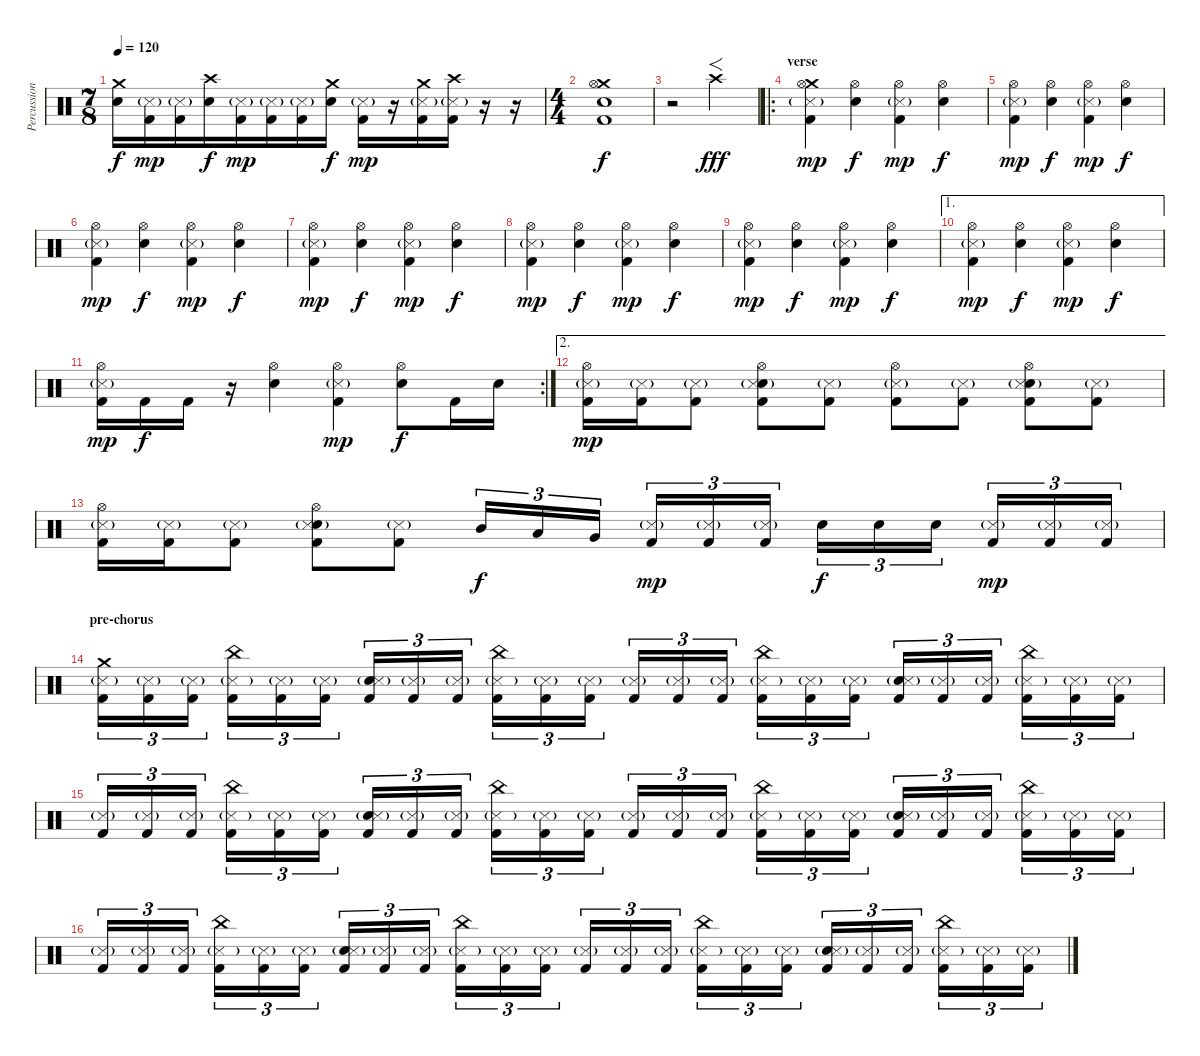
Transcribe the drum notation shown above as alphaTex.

\track ("Percussion" "Percussion") {instrument percussion}
\staff {score}
\articulation defaults
\ts (7 8)
\tempo 120
\clef neutral
\ks c
("Crash medium (hit)" "Electric Snare (hit)").16{dy f} ("Snare (side stick) 3"{g} "Kick (hit) 2").16{dy mp} ("Snare (side stick) 3"{g} "Kick (hit) 2").16 ("Crash high (hit)" "Electric Snare (hit)").16{dy f} ("Snare (side stick) 3"{g} "Kick (hit) 2").16{dy mp} ("Snare (side stick) 3"{g} "Kick (hit) 2").16 ("Snare (side stick) 3"{g} "Kick (hit) 2").16 ("Crash medium (hit)" "Electric Snare (hit)").16{dy f} ("Snare (side stick) 3"{g} "Kick (hit) 2").16{dy mp} r.16 ("Crash medium (hit)" "Snare (side stick) 3"{g} "Kick (hit) 2").16 ("Crash high (hit)" "Snare (side stick) 3"{g} "Kick (hit) 2").16 r.16 r.16 |
\ts (4 4)
("Crash medium (hit)" "Hi-Hat (open)" "Electric Snare (hit)" "Kick (hit) 2").1{dy f} |
r.2 "Crash high (hit)".2{f dy fff} |
\ro
\section ("" "verse")
("Crash medium (hit)" "Hi-Hat (open)" "Snare (side stick) 3"{g} "Kick (hit) 2").4{dy mp} ("Hi-Hat (open)" "Electric Snare (hit)").4{dy f} ("Hi-Hat (open)" "Snare (side stick) 3"{g} "Kick (hit) 2").4{dy mp} ("Hi-Hat (open)" "Electric Snare (hit)").4{dy f} |
("Hi-Hat (open)" "Snare (side stick) 3"{g} "Kick (hit) 2").4{dy mp} ("Hi-Hat (open)" "Electric Snare (hit)").4{dy f} ("Hi-Hat (open)" "Snare (side stick) 3"{g} "Kick (hit) 2").4{dy mp} ("Hi-Hat (open)" "Electric Snare (hit)").4{dy f} |
("Hi-Hat (open)" "Snare (side stick) 3"{g} "Kick (hit) 2").4{dy mp} ("Hi-Hat (open)" "Electric Snare (hit)").4{dy f} ("Hi-Hat (open)" "Snare (side stick) 3"{g} "Kick (hit) 2").4{dy mp} ("Hi-Hat (open)" "Electric Snare (hit)").4{dy f} |
("Hi-Hat (open)" "Snare (side stick) 3"{g} "Kick (hit) 2").4{dy mp} ("Hi-Hat (open)" "Electric Snare (hit)").4{dy f} ("Hi-Hat (open)" "Snare (side stick) 3"{g} "Kick (hit) 2").4{dy mp} ("Hi-Hat (open)" "Electric Snare (hit)").4{dy f} |
("Hi-Hat (open)" "Snare (side stick) 3"{g} "Kick (hit) 2").4{dy mp} ("Hi-Hat (open)" "Electric Snare (hit)").4{dy f} ("Hi-Hat (open)" "Snare (side stick) 3"{g} "Kick (hit) 2").4{dy mp} ("Hi-Hat (open)" "Electric Snare (hit)").4{dy f} |
("Hi-Hat (open)" "Snare (side stick) 3"{g} "Kick (hit) 2").4{dy mp} ("Hi-Hat (open)" "Electric Snare (hit)").4{dy f} ("Hi-Hat (open)" "Snare (side stick) 3"{g} "Kick (hit) 2").4{dy mp} ("Hi-Hat (open)" "Electric Snare (hit)").4{dy f} |
\ae 1
("Hi-Hat (open)" "Snare (side stick) 3"{g} "Kick (hit) 2").4{dy mp} ("Hi-Hat (open)" "Electric Snare (hit)").4{dy f} ("Hi-Hat (open)" "Snare (side stick) 3"{g} "Kick (hit) 2").4{dy mp} ("Hi-Hat (open)" "Electric Snare (hit)").4{dy f} |
\rc 2
("Hi-Hat (open)" "Snare (side stick) 3"{g} "Kick (hit) 2").16{dy mp} "Kick (hit) 2".16{dy f} "Kick (hit) 2".16 r.16 ("Hi-Hat (open)" "Electric Snare (hit)").4 ("Hi-Hat (open)" "Snare (side stick) 3"{g} "Kick (hit) 2").4{dy mp} ("Hi-Hat (open)" "Electric Snare (hit)").8{dy f} "Kick (hit) 2".16 "Electric Snare (hit)".16 |
\ae 2
("Hi-Hat (open)" "Snare (side stick) 3"{g} "Kick (hit) 2").16{dy mp} ("Snare (side stick) 3"{g} "Kick (hit) 2").16 ("Snare (side stick) 3"{g} "Kick (hit) 2").8 ("Hi-Hat (open)" "Electric Snare (hit)" "Snare (side stick) 3"{g} "Kick (hit) 2").8 ("Snare (side stick) 3"{g} "Kick (hit) 2").8 ("Hi-Hat (open)" "Snare (side stick) 3"{g} "Kick (hit) 2").8 ("Snare (side stick) 3"{g} "Kick (hit) 2").8 ("Hi-Hat (open)" "Electric Snare (hit)" "Snare (side stick) 3"{g} "Kick (hit) 2").8 ("Snare (side stick) 3"{g} "Kick (hit) 2").8 |
("Hi-Hat (open)" "Snare (side stick) 3"{g} "Kick (hit) 2").16 ("Snare (side stick) 3"{g} "Kick (hit) 2").16 ("Snare (side stick) 3"{g} "Kick (hit) 2").8 ("Hi-Hat (open)" "Electric Snare (hit)" "Snare (side stick) 3"{g} "Kick (hit) 2").8 ("Snare (side stick) 3"{g} "Kick (hit) 2").8 "Mid Tom (hit)".16{tu (3 2) dy f} "Low Tom (hit)".16{tu (3 2)} "Very Low Tom (hit)".16{tu (3 2)} ("Snare (side stick) 3"{g} "Kick (hit) 2").16{tu (3 2) dy mp} ("Snare (side stick) 3"{g} "Kick (hit) 2").16{tu (3 2)} ("Snare (side stick) 3"{g} "Kick (hit) 2").16{tu (3 2)} "Electric Snare (hit)".16{tu (3 2) dy f} "Electric Snare (hit)".16{tu (3 2)} "Electric Snare (hit)".16{tu (3 2)} ("Snare (side stick) 3"{g} "Kick (hit) 2").16{tu (3 2) dy mp} ("Snare (side stick) 3"{g} "Kick (hit) 2").16{tu (3 2)} ("Snare (side stick) 3"{g} "Kick (hit) 2").16{tu (3 2)} |
\section ("" "pre-chorus")
("Crash medium (hit)" "Snare (side stick) 3"{g} "Kick (hit) 2").16{tu (3 2)} ("Snare (side stick) 3"{g} "Kick (hit) 2").16{tu (3 2)} ("Snare (side stick) 3"{g} "Kick (hit) 2").16{tu (3 2)} ("China (hit)" "Snare (side stick) 3"{g} "Kick (hit) 2").16{tu (3 2)} ("Snare (side stick) 3"{g} "Kick (hit) 2").16{tu (3 2)} ("Snare (side stick) 3"{g} "Kick (hit) 2").16{tu (3 2)} ("Electric Snare (hit)" "Snare (side stick) 3"{g} "Kick (hit) 2").16{tu (3 2)} ("Snare (side stick) 3"{g} "Kick (hit) 2").16{tu (3 2)} ("Snare (side stick) 3"{g} "Kick (hit) 2").16{tu (3 2)} ("China (hit)" "Snare (side stick) 3"{g} "Kick (hit) 2").16{tu (3 2)} ("Snare (side stick) 3"{g} "Kick (hit) 2").16{tu (3 2)} ("Snare (side stick) 3"{g} "Kick (hit) 2").16{tu (3 2)} ("Snare (side stick) 3"{g} "Kick (hit) 2").16{tu (3 2)} ("Snare (side stick) 3"{g} "Kick (hit) 2").16{tu (3 2)} ("Snare (side stick) 3"{g} "Kick (hit) 2").16{tu (3 2)} ("China (hit)" "Snare (side stick) 3"{g} "Kick (hit) 2").16{tu (3 2)} ("Snare (side stick) 3"{g} "Kick (hit) 2").16{tu (3 2)} ("Snare (side stick) 3"{g} "Kick (hit) 2").16{tu (3 2)} ("Electric Snare (hit)" "Snare (side stick) 3"{g} "Kick (hit) 2").16{tu (3 2)} ("Snare (side stick) 3"{g} "Kick (hit) 2").16{tu (3 2)} ("Snare (side stick) 3"{g} "Kick (hit) 2").16{tu (3 2)} ("China (hit)" "Snare (side stick) 3"{g} "Kick (hit) 2").16{tu (3 2)} ("Snare (side stick) 3"{g} "Kick (hit) 2").16{tu (3 2)} ("Snare (side stick) 3"{g} "Kick (hit) 2").16{tu (3 2)} |
("Snare (side stick) 3"{g} "Kick (hit) 2").16{tu (3 2)} ("Snare (side stick) 3"{g} "Kick (hit) 2").16{tu (3 2)} ("Snare (side stick) 3"{g} "Kick (hit) 2").16{tu (3 2)} ("China (hit)" "Snare (side stick) 3"{g} "Kick (hit) 2").16{tu (3 2)} ("Snare (side stick) 3"{g} "Kick (hit) 2").16{tu (3 2)} ("Snare (side stick) 3"{g} "Kick (hit) 2").16{tu (3 2)} ("Electric Snare (hit)" "Snare (side stick) 3"{g} "Kick (hit) 2").16{tu (3 2)} ("Snare (side stick) 3"{g} "Kick (hit) 2").16{tu (3 2)} ("Snare (side stick) 3"{g} "Kick (hit) 2").16{tu (3 2)} ("China (hit)" "Snare (side stick) 3"{g} "Kick (hit) 2").16{tu (3 2)} ("Snare (side stick) 3"{g} "Kick (hit) 2").16{tu (3 2)} ("Snare (side stick) 3"{g} "Kick (hit) 2").16{tu (3 2)} ("Snare (side stick) 3"{g} "Kick (hit) 2").16{tu (3 2)} ("Snare (side stick) 3"{g} "Kick (hit) 2").16{tu (3 2)} ("Snare (side stick) 3"{g} "Kick (hit) 2").16{tu (3 2)} ("China (hit)" "Snare (side stick) 3"{g} "Kick (hit) 2").16{tu (3 2)} ("Snare (side stick) 3"{g} "Kick (hit) 2").16{tu (3 2)} ("Snare (side stick) 3"{g} "Kick (hit) 2").16{tu (3 2)} ("Electric Snare (hit)" "Snare (side stick) 3"{g} "Kick (hit) 2").16{tu (3 2)} ("Snare (side stick) 3"{g} "Kick (hit) 2").16{tu (3 2)} ("Snare (side stick) 3"{g} "Kick (hit) 2").16{tu (3 2)} ("China (hit)" "Snare (side stick) 3"{g} "Kick (hit) 2").16{tu (3 2)} ("Snare (side stick) 3"{g} "Kick (hit) 2").16{tu (3 2)} ("Snare (side stick) 3"{g} "Kick (hit) 2").16{tu (3 2)} |
("Snare (side stick) 3"{g} "Kick (hit) 2").16{tu (3 2)} ("Snare (side stick) 3"{g} "Kick (hit) 2").16{tu (3 2)} ("Snare (side stick) 3"{g} "Kick (hit) 2").16{tu (3 2)} ("China (hit)" "Snare (side stick) 3"{g} "Kick (hit) 2").16{tu (3 2)} ("Snare (side stick) 3"{g} "Kick (hit) 2").16{tu (3 2)} ("Snare (side stick) 3"{g} "Kick (hit) 2").16{tu (3 2)} ("Electric Snare (hit)" "Snare (side stick) 3"{g} "Kick (hit) 2").16{tu (3 2)} ("Snare (side stick) 3"{g} "Kick (hit) 2").16{tu (3 2)} ("Snare (side stick) 3"{g} "Kick (hit) 2").16{tu (3 2)} ("China (hit)" "Snare (side stick) 3"{g} "Kick (hit) 2").16{tu (3 2)} ("Snare (side stick) 3"{g} "Kick (hit) 2").16{tu (3 2)} ("Snare (side stick) 3"{g} "Kick (hit) 2").16{tu (3 2)} ("Snare (side stick) 3"{g} "Kick (hit) 2").16{tu (3 2)} ("Snare (side stick) 3"{g} "Kick (hit) 2").16{tu (3 2)} ("Snare (side stick) 3"{g} "Kick (hit) 2").16{tu (3 2)} ("China (hit)" "Snare (side stick) 3"{g} "Kick (hit) 2").16{tu (3 2)} ("Snare (side stick) 3"{g} "Kick (hit) 2").16{tu (3 2)} ("Snare (side stick) 3"{g} "Kick (hit) 2").16{tu (3 2)} ("Electric Snare (hit)" "Snare (side stick) 3"{g} "Kick (hit) 2").16{tu (3 2)} ("Snare (side stick) 3"{g} "Kick (hit) 2").16{tu (3 2)} ("Snare (side stick) 3"{g} "Kick (hit) 2").16{tu (3 2)} ("China (hit)" "Snare (side stick) 3"{g} "Kick (hit) 2").16{tu (3 2)} ("Snare (side stick) 3"{g} "Kick (hit) 2").16{tu (3 2)} ("Snare (side stick) 3"{g} "Kick (hit) 2").16{tu (3 2)}
